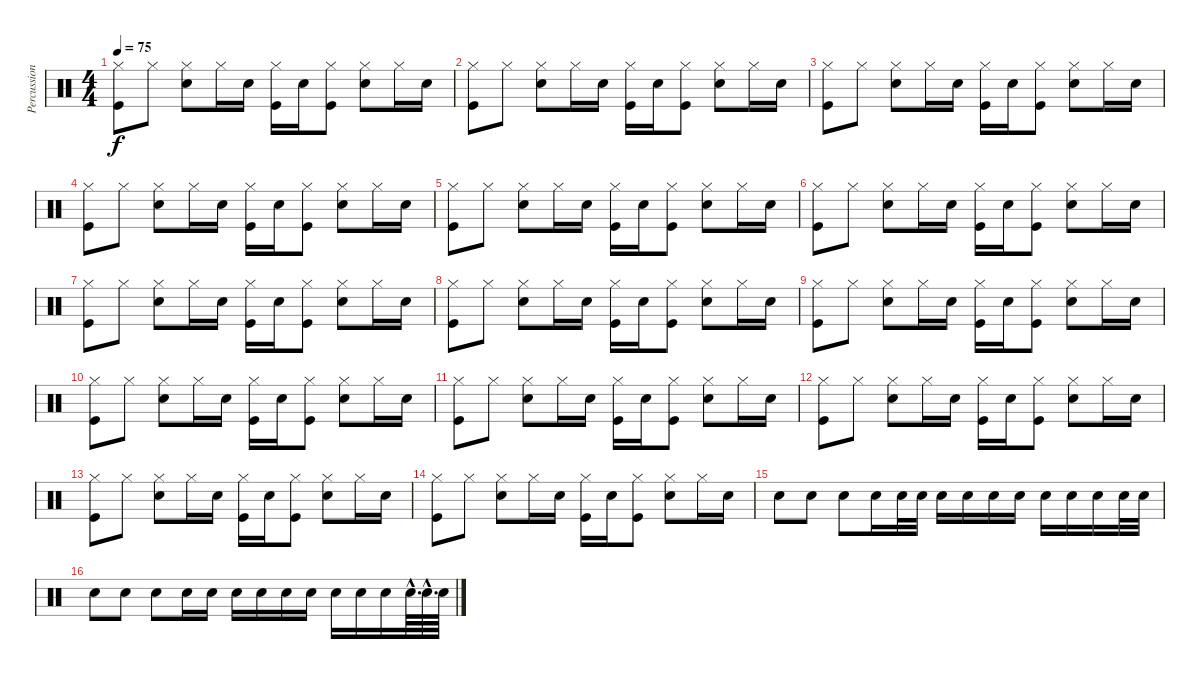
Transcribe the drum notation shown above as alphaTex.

\track ("Percussion" "Percussion") {instrument percussion}
\staff {score}
\articulation defaults
\ts (4 4)
\tempo 75
\clef neutral
\ks c
("Hi-Hat (closed)" "Kick (hit)").8{dy f} "Hi-Hat (closed)".8 ("Hi-Hat (closed)" "Snare (hit) 2").8 "Hi-Hat (closed)".16 "Snare (hit) 2".16 ("Hi-Hat (closed)" "Kick (hit)").16 "Snare (hit) 2".16 ("Hi-Hat (closed)" "Kick (hit)").8 ("Hi-Hat (closed)" "Snare (hit) 2").8 "Hi-Hat (closed)".16 "Snare (hit) 2".16 |
("Hi-Hat (closed)" "Kick (hit)").8 "Hi-Hat (closed)".8 ("Hi-Hat (closed)" "Snare (hit) 2").8 "Hi-Hat (closed)".16 "Snare (hit) 2".16 ("Hi-Hat (closed)" "Kick (hit)").16 "Snare (hit) 2".16 ("Hi-Hat (closed)" "Kick (hit)").8 ("Hi-Hat (closed)" "Snare (hit) 2").8 "Hi-Hat (closed)".16 "Snare (hit) 2".16 |
("Hi-Hat (closed)" "Kick (hit)").8 "Hi-Hat (closed)".8 ("Hi-Hat (closed)" "Snare (hit) 2").8 "Hi-Hat (closed)".16 "Snare (hit) 2".16 ("Hi-Hat (closed)" "Kick (hit)").16 "Snare (hit) 2".16 ("Hi-Hat (closed)" "Kick (hit)").8 ("Hi-Hat (closed)" "Snare (hit) 2").8 "Hi-Hat (closed)".16 "Snare (hit) 2".16 |
("Hi-Hat (closed)" "Kick (hit)").8 "Hi-Hat (closed)".8 ("Hi-Hat (closed)" "Snare (hit) 2").8 "Hi-Hat (closed)".16 "Snare (hit) 2".16 ("Hi-Hat (closed)" "Kick (hit)").16 "Snare (hit) 2".16 ("Hi-Hat (closed)" "Kick (hit)").8 ("Hi-Hat (closed)" "Snare (hit) 2").8 "Hi-Hat (closed)".16 "Snare (hit) 2".16 |
("Hi-Hat (closed)" "Kick (hit)").8 "Hi-Hat (closed)".8 ("Hi-Hat (closed)" "Snare (hit) 2").8 "Hi-Hat (closed)".16 "Snare (hit) 2".16 ("Hi-Hat (closed)" "Kick (hit)").16 "Snare (hit) 2".16 ("Hi-Hat (closed)" "Kick (hit)").8 ("Hi-Hat (closed)" "Snare (hit) 2").8 "Hi-Hat (closed)".16 "Snare (hit) 2".16 |
("Hi-Hat (closed)" "Kick (hit)").8 "Hi-Hat (closed)".8 ("Hi-Hat (closed)" "Snare (hit) 2").8 "Hi-Hat (closed)".16 "Snare (hit) 2".16 ("Hi-Hat (closed)" "Kick (hit)").16 "Snare (hit) 2".16 ("Hi-Hat (closed)" "Kick (hit)").8 ("Hi-Hat (closed)" "Snare (hit) 2").8 "Hi-Hat (closed)".16 "Snare (hit) 2".16 |
("Hi-Hat (closed)" "Kick (hit)").8 "Hi-Hat (closed)".8 ("Hi-Hat (closed)" "Snare (hit) 2").8 "Hi-Hat (closed)".16 "Snare (hit) 2".16 ("Hi-Hat (closed)" "Kick (hit)").16 "Snare (hit) 2".16 ("Hi-Hat (closed)" "Kick (hit)").8 ("Hi-Hat (closed)" "Snare (hit) 2").8 "Hi-Hat (closed)".16 "Snare (hit) 2".16 |
("Hi-Hat (closed)" "Kick (hit)").8 "Hi-Hat (closed)".8 ("Hi-Hat (closed)" "Snare (hit) 2").8 "Hi-Hat (closed)".16 "Snare (hit) 2".16 ("Hi-Hat (closed)" "Kick (hit)").16 "Snare (hit) 2".16 ("Hi-Hat (closed)" "Kick (hit)").8 ("Hi-Hat (closed)" "Snare (hit) 2").8 "Hi-Hat (closed)".16 "Snare (hit) 2".16 |
("Hi-Hat (closed)" "Kick (hit)").8 "Hi-Hat (closed)".8 ("Hi-Hat (closed)" "Snare (hit) 2").8 "Hi-Hat (closed)".16 "Snare (hit) 2".16 ("Hi-Hat (closed)" "Kick (hit)").16 "Snare (hit) 2".16 ("Hi-Hat (closed)" "Kick (hit)").8 ("Hi-Hat (closed)" "Snare (hit) 2").8 "Hi-Hat (closed)".16 "Snare (hit) 2".16 |
("Hi-Hat (closed)" "Kick (hit)").8 "Hi-Hat (closed)".8 ("Hi-Hat (closed)" "Snare (hit) 2").8 "Hi-Hat (closed)".16 "Snare (hit) 2".16 ("Hi-Hat (closed)" "Kick (hit)").16 "Snare (hit) 2".16 ("Hi-Hat (closed)" "Kick (hit)").8 ("Hi-Hat (closed)" "Snare (hit) 2").8 "Hi-Hat (closed)".16 "Snare (hit) 2".16 |
("Hi-Hat (closed)" "Kick (hit)").8 "Hi-Hat (closed)".8 ("Hi-Hat (closed)" "Snare (hit) 2").8 "Hi-Hat (closed)".16 "Snare (hit) 2".16 ("Hi-Hat (closed)" "Kick (hit)").16 "Snare (hit) 2".16 ("Hi-Hat (closed)" "Kick (hit)").8 ("Hi-Hat (closed)" "Snare (hit) 2").8 "Hi-Hat (closed)".16 "Snare (hit) 2".16 |
("Hi-Hat (closed)" "Kick (hit)").8 "Hi-Hat (closed)".8 ("Hi-Hat (closed)" "Snare (hit) 2").8 "Hi-Hat (closed)".16 "Snare (hit) 2".16 ("Hi-Hat (closed)" "Kick (hit)").16 "Snare (hit) 2".16 ("Hi-Hat (closed)" "Kick (hit)").8 ("Hi-Hat (closed)" "Snare (hit) 2").8 "Hi-Hat (closed)".16 "Snare (hit) 2".16 |
("Hi-Hat (closed)" "Kick (hit)").8 "Hi-Hat (closed)".8 ("Hi-Hat (closed)" "Snare (hit) 2").8 "Hi-Hat (closed)".16 "Snare (hit) 2".16 ("Hi-Hat (closed)" "Kick (hit)").16 "Snare (hit) 2".16 ("Hi-Hat (closed)" "Kick (hit)").8 ("Hi-Hat (closed)" "Snare (hit) 2").8 "Hi-Hat (closed)".16 "Snare (hit) 2".16 |
("Hi-Hat (closed)" "Kick (hit)").8 "Hi-Hat (closed)".8 ("Hi-Hat (closed)" "Snare (hit) 2").8 "Hi-Hat (closed)".16 "Snare (hit) 2".16 ("Hi-Hat (closed)" "Kick (hit)").16 "Snare (hit) 2".16 ("Hi-Hat (closed)" "Kick (hit)").8 ("Hi-Hat (closed)" "Snare (hit) 2").8 "Hi-Hat (closed)".16 "Snare (hit) 2".16 |
"Snare (hit) 2".8 "Snare (hit) 2".8 "Snare (hit) 2".8 "Snare (hit) 2".16 "Snare (hit) 2".32 "Snare (hit) 2".32 "Snare (hit) 2".16 "Snare (hit) 2".16 "Snare (hit) 2".16 "Snare (hit) 2".16 "Snare (hit) 2".16 "Snare (hit) 2".16 "Snare (hit) 2".16 "Snare (hit) 2".32 "Snare (hit) 2".32 |
"Snare (hit) 2".8 "Snare (hit) 2".8 "Snare (hit) 2".8 "Snare (hit) 2".16 "Snare (hit) 2".16 "Snare (hit) 2".16 "Snare (hit) 2".16 "Snare (hit) 2".16 "Snare (hit) 2".16 "Snare (hit) 2".16 "Snare (hit) 2".16 "Snare (hit) 2".16 "Snare (hit) 2"{hac}.64{d} "Snare (hit) 2"{hac}.64{d} "Snare (hit) 2".64
